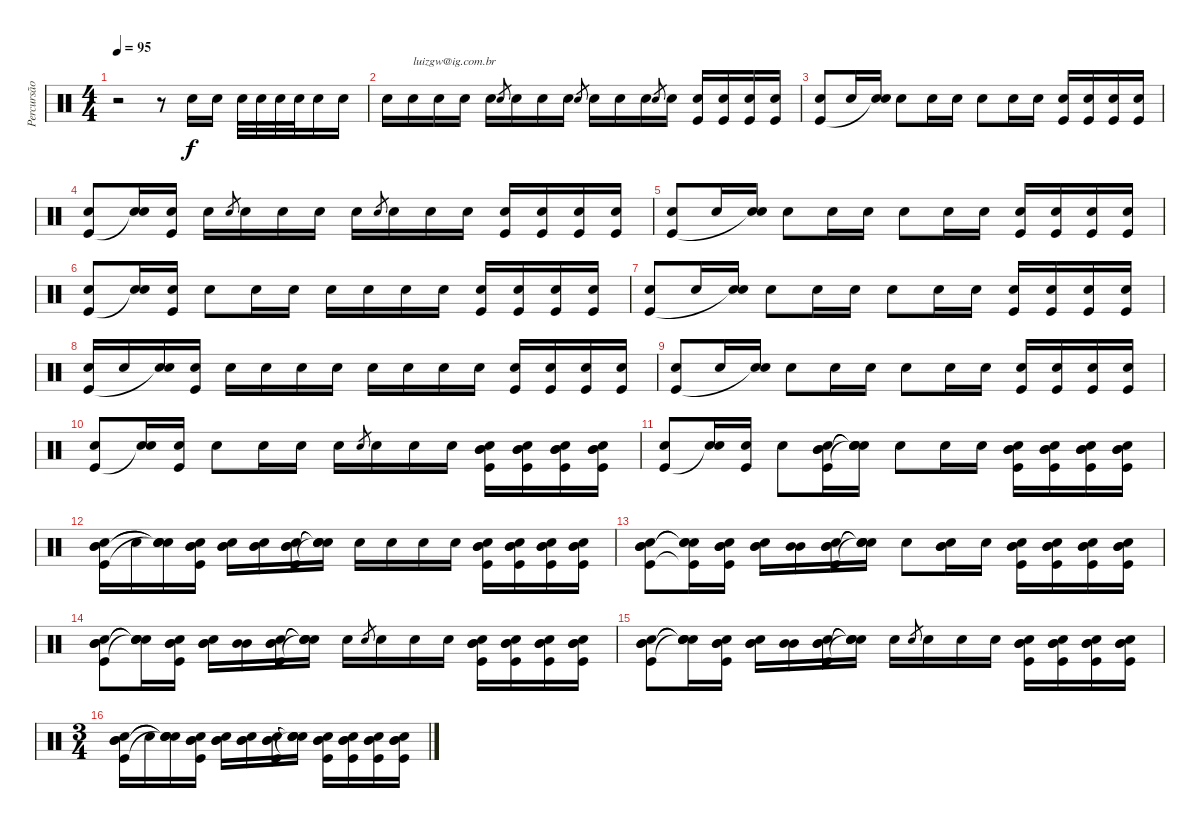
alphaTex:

\track ("Percursão" "Percursão") {instrument percussion}
\staff {score}
\articulation defaults
\ts (4 4)
\tempo 95
\clef neutral
\ks c
r.2{dy f} r.8 "Electric Snare (hit)".16{volume 9 balance 6} "Electric Snare (hit)".16 "Electric Snare (hit)".32 "Electric Snare (hit)".32 "Electric Snare (hit)".32 "Electric Snare (hit)".32 "Electric Snare (hit)".16 "Electric Snare (hit)".16 |
"Electric Snare (hit)".16 "Electric Snare (hit)".16{txt "luizgw@ig.com.br"} "Electric Snare (hit)".16 "Electric Snare (hit)".16 "Electric Snare (hit)".16 "Electric Snare (hit)".8{gr} "Electric Snare (hit)".16 "Electric Snare (hit)".16 "Electric Snare (hit)".16 "Electric Snare (hit)".8{gr} "Electric Snare (hit)".16 "Electric Snare (hit)".16 "Electric Snare (hit)".16 "Electric Snare (hit)".8{gr} "Electric Snare (hit)".16 ("Electric Snare (hit)" "Kick (hit)").16 ("Electric Snare (hit)" "Kick (hit)").16 ("Electric Snare (hit)" "Kick (hit)").16 ("Electric Snare (hit)" "Kick (hit)").16 |
("Electric Snare (hit)" "Kick (hit)").8 "Electric Snare (hit)".16 ("Electric Snare (hit)" "Snare (hit)"{t}).16 "Electric Snare (hit)".8 "Electric Snare (hit)".16 "Electric Snare (hit)".16 "Electric Snare (hit)".8 "Electric Snare (hit)".16 "Electric Snare (hit)".16 ("Electric Snare (hit)" "Kick (hit)").16 ("Electric Snare (hit)" "Kick (hit)").16 ("Electric Snare (hit)" "Kick (hit)").16 ("Electric Snare (hit)" "Kick (hit)").16 |
("Electric Snare (hit)" "Kick (hit)").8 ("Electric Snare (hit)" "Snare (hit)"{t}).16 ("Electric Snare (hit)" "Kick (hit)").16 "Electric Snare (hit)".16 "Electric Snare (hit)".8{gr} "Electric Snare (hit)".16 "Electric Snare (hit)".16 "Electric Snare (hit)".16 "Electric Snare (hit)".16 "Electric Snare (hit)".8{gr} "Electric Snare (hit)".16 "Electric Snare (hit)".16 "Electric Snare (hit)".16 ("Electric Snare (hit)" "Kick (hit)").16 ("Electric Snare (hit)" "Kick (hit)").16 ("Electric Snare (hit)" "Kick (hit)").16 ("Electric Snare (hit)" "Kick (hit)").16 |
("Electric Snare (hit)" "Kick (hit)").8 "Electric Snare (hit)".16 ("Electric Snare (hit)" "Snare (hit)"{t}).16 "Electric Snare (hit)".8 "Electric Snare (hit)".16 "Electric Snare (hit)".16 "Electric Snare (hit)".8 "Electric Snare (hit)".16 "Electric Snare (hit)".16 ("Electric Snare (hit)" "Kick (hit)").16 ("Electric Snare (hit)" "Kick (hit)").16 ("Electric Snare (hit)" "Kick (hit)").16 ("Electric Snare (hit)" "Kick (hit)").16 |
("Electric Snare (hit)" "Kick (hit)").8 ("Electric Snare (hit)" "Snare (hit)"{t}).16 ("Electric Snare (hit)" "Kick (hit)").16 "Electric Snare (hit)".8 "Electric Snare (hit)".16 "Electric Snare (hit)".16 "Electric Snare (hit)".16 "Electric Snare (hit)".16 "Electric Snare (hit)".16 "Electric Snare (hit)".16 ("Electric Snare (hit)" "Kick (hit)").16 ("Electric Snare (hit)" "Kick (hit)").16 ("Electric Snare (hit)" "Kick (hit)").16 ("Electric Snare (hit)" "Kick (hit)").16 |
("Electric Snare (hit)" "Kick (hit)").8 "Electric Snare (hit)".16 ("Electric Snare (hit)" "Snare (hit)"{t}).16 "Electric Snare (hit)".8 "Electric Snare (hit)".16 "Electric Snare (hit)".16 "Electric Snare (hit)".8 "Electric Snare (hit)".16 "Electric Snare (hit)".16 ("Electric Snare (hit)" "Kick (hit)").16 ("Electric Snare (hit)" "Kick (hit)").16 ("Electric Snare (hit)" "Kick (hit)").16 ("Electric Snare (hit)" "Kick (hit)").16 |
("Electric Snare (hit)" "Kick (hit)").16 "Electric Snare (hit)".16 ("Electric Snare (hit)" "Snare (hit)"{t}).16 ("Electric Snare (hit)" "Kick (hit)").16 "Electric Snare (hit)".16 "Electric Snare (hit)".16 "Electric Snare (hit)".16 "Electric Snare (hit)".16 "Electric Snare (hit)".16 "Electric Snare (hit)".16 "Electric Snare (hit)".16 "Electric Snare (hit)".16 ("Electric Snare (hit)" "Kick (hit)").16 ("Electric Snare (hit)" "Kick (hit)").16 ("Electric Snare (hit)" "Kick (hit)").16 ("Electric Snare (hit)" "Kick (hit)").16 |
("Electric Snare (hit)" "Kick (hit)").8 "Electric Snare (hit)".16 ("Electric Snare (hit)" "Snare (hit)"{t}).16 "Electric Snare (hit)".8 "Electric Snare (hit)".16 "Electric Snare (hit)".16 "Electric Snare (hit)".8 "Electric Snare (hit)".16 "Electric Snare (hit)".16 ("Electric Snare (hit)" "Kick (hit)").16 ("Electric Snare (hit)" "Kick (hit)").16 ("Electric Snare (hit)" "Kick (hit)").16 ("Electric Snare (hit)" "Kick (hit)").16 |
("Electric Snare (hit)" "Kick (hit)").8 ("Electric Snare (hit)" "Snare (hit)"{t}).16 ("Electric Snare (hit)" "Kick (hit)").16 "Electric Snare (hit)".8 "Electric Snare (hit)".16 "Electric Snare (hit)".16 "Electric Snare (hit)".16 "Electric Snare (hit)".8{gr} "Electric Snare (hit)".16 "Electric Snare (hit)".16 "Electric Snare (hit)".16 ("Electric Snare (hit)" "Mid Tom (hit)" "Mid Tom (hit)" "Kick (hit)").16 ("Electric Snare (hit)" "Mid Tom (hit)" "Mid Tom (hit)" "Kick (hit)").16 ("Electric Snare (hit)" "Mid Tom (hit)" "Mid Tom (hit)" "Kick (hit)").16 ("Electric Snare (hit)" "Mid Tom (hit)" "Mid Tom (hit)" "Kick (hit)").16 |
("Electric Snare (hit)" "Kick (hit)").8 ("Electric Snare (hit)" "Snare (hit)"{t}).16 ("Electric Snare (hit)" "Kick (hit)").16 "Electric Snare (hit)".8 ("Electric Snare (hit)" "Mid Tom (hit)" "Mid Tom (hit)" "Kick (hit)").16 ("Electric Snare (hit)" "Snare (hit)"{t} "Snare (hit)"{t} "Snare (hit)"{t}).16 "Electric Snare (hit)".8 "Electric Snare (hit)".16 "Electric Snare (hit)".16 ("Electric Snare (hit)" "Mid Tom (hit)" "Mid Tom (hit)" "Kick (hit)").16 ("Electric Snare (hit)" "Mid Tom (hit)" "Mid Tom (hit)" "Kick (hit)").16 ("Electric Snare (hit)" "Mid Tom (hit)" "Mid Tom (hit)" "Kick (hit)").16 ("Electric Snare (hit)" "Mid Tom (hit)" "Mid Tom (hit)" "Kick (hit)").16 |
("Electric Snare (hit)" "Mid Tom (hit)" "Mid Tom (hit)" "Kick (hit)").16 "Electric Snare (hit)".16 ("Electric Snare (hit)" "Snare (hit)"{t} "Snare (hit)"{t} "Snare (hit)"{t}).16 ("Electric Snare (hit)" "Mid Tom (hit)" "Mid Tom (hit)" "Kick (hit)").16 ("Electric Snare (hit)" "Mid Tom (hit)" "Mid Tom (hit)").16 ("Electric Snare (hit)" "Mid Tom (hit)" "Mid Tom (hit)").16 ("Electric Snare (hit)" "Mid Tom (hit)" "Mid Tom (hit)" "Kick (hit)").16 ("Electric Snare (hit)" "Snare (hit)"{t} "Snare (hit)"{t} "Snare (hit)"{t}).16 "Electric Snare (hit)".16 "Electric Snare (hit)".16 "Electric Snare (hit)".16 "Electric Snare (hit)".16 ("Electric Snare (hit)" "Mid Tom (hit)" "Mid Tom (hit)" "Kick (hit)").16 ("Electric Snare (hit)" "Mid Tom (hit)" "Mid Tom (hit)" "Kick (hit)").16 ("Electric Snare (hit)" "Mid Tom (hit)" "Mid Tom (hit)" "Kick (hit)").16 ("Electric Snare (hit)" "Mid Tom (hit)" "Mid Tom (hit)" "Kick (hit)").16 |
("Electric Snare (hit)" "Mid Tom (hit)" "Mid Tom (hit)" "Kick (hit)").8 ("Electric Snare (hit)" "Snare (hit)"{t} "Snare (hit)"{t} "Kick (hit)"{t}).16 ("Electric Snare (hit)" "Mid Tom (hit)" "Mid Tom (hit)" "Kick (hit)").16 ("Electric Snare (hit)" "Mid Tom (hit)" "Mid Tom (hit)").16 ("Mid Tom (hit)" "Mid Tom (hit)").16 ("Electric Snare (hit)" "Mid Tom (hit)" "Mid Tom (hit)" "Kick (hit)").16 ("Electric Snare (hit)" "Snare (hit)"{t} "Snare (hit)"{t} "Snare (hit)"{t}).16 "Electric Snare (hit)".8 ("Electric Snare (hit)" "Mid Tom (hit)" "Mid Tom (hit)").16 "Electric Snare (hit)".16 ("Electric Snare (hit)" "Mid Tom (hit)" "Mid Tom (hit)" "Kick (hit)").16 ("Electric Snare (hit)" "Mid Tom (hit)" "Mid Tom (hit)" "Kick (hit)").16 ("Electric Snare (hit)" "Mid Tom (hit)" "Mid Tom (hit)" "Kick (hit)").16 ("Electric Snare (hit)" "Mid Tom (hit)" "Mid Tom (hit)" "Kick (hit)").16 |
("Electric Snare (hit)" "Mid Tom (hit)" "Mid Tom (hit)" "Kick (hit)").8 ("Electric Snare (hit)" "Snare (hit)"{t} "Snare (hit)"{t} "Snare (hit)"{t}).16 ("Electric Snare (hit)" "Mid Tom (hit)" "Mid Tom (hit)" "Kick (hit)").16 ("Electric Snare (hit)" "Mid Tom (hit)" "Mid Tom (hit)").16 ("Mid Tom (hit)" "Mid Tom (hit)").16 ("Electric Snare (hit)" "Mid Tom (hit)" "Mid Tom (hit)" "Kick (hit)").16 ("Electric Snare (hit)" "Snare (hit)"{t} "Snare (hit)"{t} "Snare (hit)"{t}).16 "Electric Snare (hit)".16 "Electric Snare (hit)".8{gr} "Electric Snare (hit)".16 "Electric Snare (hit)".16 "Electric Snare (hit)".16 ("Electric Snare (hit)" "Mid Tom (hit)" "Mid Tom (hit)" "Kick (hit)").16 ("Electric Snare (hit)" "Mid Tom (hit)" "Mid Tom (hit)" "Kick (hit)").16 ("Electric Snare (hit)" "Mid Tom (hit)" "Mid Tom (hit)" "Kick (hit)").16 ("Electric Snare (hit)" "Mid Tom (hit)" "Mid Tom (hit)" "Kick (hit)").16 |
("Electric Snare (hit)" "Mid Tom (hit)" "Mid Tom (hit)" "Kick (hit)").8 ("Electric Snare (hit)" "Snare (hit)"{t} "Snare (hit)"{t} "Snare (hit)"{t}).16 ("Electric Snare (hit)" "Mid Tom (hit)" "Mid Tom (hit)" "Kick (hit)").16 ("Electric Snare (hit)" "Mid Tom (hit)" "Mid Tom (hit)").16 ("Mid Tom (hit)" "Mid Tom (hit)").16 ("Electric Snare (hit)" "Mid Tom (hit)" "Mid Tom (hit)" "Kick (hit)").16 ("Electric Snare (hit)" "Snare (hit)"{t} "Snare (hit)"{t} "Snare (hit)"{t}).16 "Electric Snare (hit)".16 "Electric Snare (hit)".8{gr} "Electric Snare (hit)".16 "Electric Snare (hit)".16 "Electric Snare (hit)".16 ("Electric Snare (hit)" "Mid Tom (hit)" "Mid Tom (hit)" "Kick (hit)").16 ("Electric Snare (hit)" "Mid Tom (hit)" "Mid Tom (hit)" "Kick (hit)").16 ("Electric Snare (hit)" "Mid Tom (hit)" "Mid Tom (hit)" "Kick (hit)").16 ("Electric Snare (hit)" "Mid Tom (hit)" "Mid Tom (hit)" "Kick (hit)").16 |
\ts (3 4)
("Electric Snare (hit)" "Mid Tom (hit)" "Mid Tom (hit)" "Kick (hit)").16 "Electric Snare (hit)".16 ("Electric Snare (hit)" "Snare (hit)"{t} "Snare (hit)"{t} "Snare (hit)"{t}).16 ("Electric Snare (hit)" "Mid Tom (hit)" "Mid Tom (hit)" "Kick (hit)").16 ("Electric Snare (hit)" "Mid Tom (hit)" "Mid Tom (hit)").16 ("Electric Snare (hit)" "Mid Tom (hit)" "Mid Tom (hit)").16 ("Electric Snare (hit)" "Mid Tom (hit)" "Mid Tom (hit)" "Kick (hit)").16 ("Electric Snare (hit)" "Snare (hit)"{t} "Snare (hit)"{t} "Snare (hit)"{t}).16 ("Electric Snare (hit)" "Mid Tom (hit)" "Mid Tom (hit)" "Kick (hit)").16 ("Electric Snare (hit)" "Mid Tom (hit)" "Mid Tom (hit)" "Kick (hit)").16 ("Electric Snare (hit)" "Mid Tom (hit)" "Mid Tom (hit)" "Kick (hit)").16 ("Electric Snare (hit)" "Mid Tom (hit)" "Mid Tom (hit)" "Kick (hit)").16
